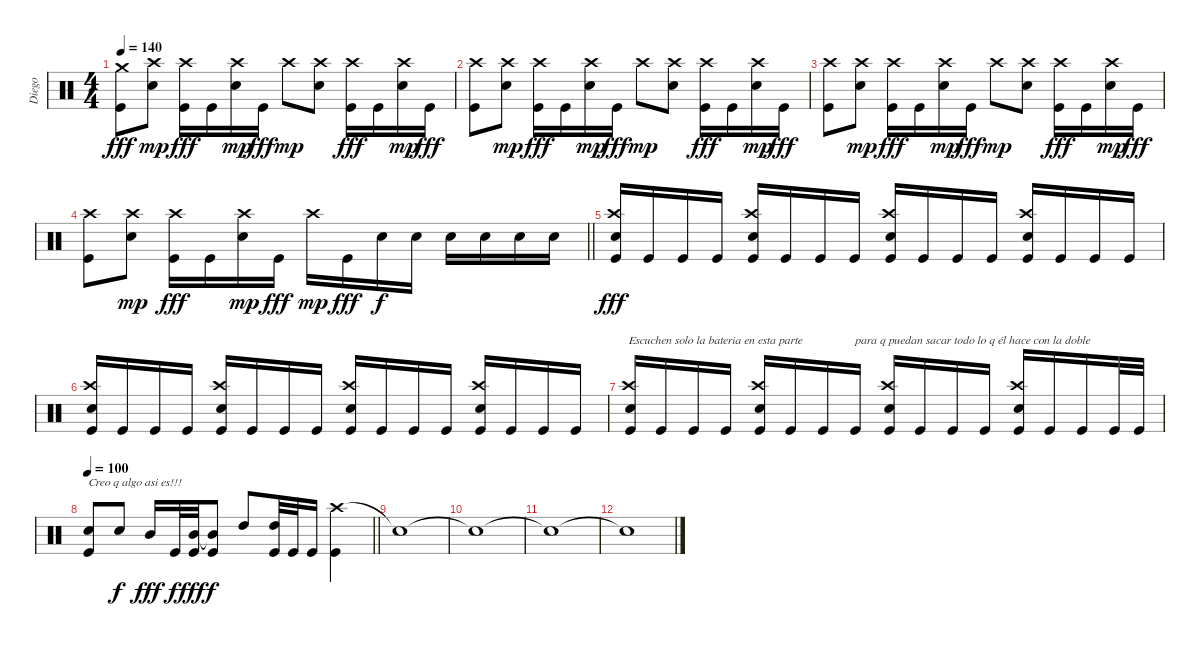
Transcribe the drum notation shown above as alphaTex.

\track ("Diego" "Diego") {instrument percussion}
\staff {score}
\articulation defaults
\ts (4 4)
\tempo 140
\clef neutral
\ks c
("Crash medium (hit)" "Kick (hit)").8{dy fff} ("Crash high (hit)" "Snare (hit) 2").8{dy mp} ("Crash high (hit)" "Kick (hit)").16{dy fff} "Kick (hit)".16 ("Crash high (hit)" "Snare (hit) 2").16{dy mp} "Kick (hit)".16{dy fff} "Crash high (hit)".8{dy mp} ("Crash high (hit)" "Snare (hit) 2").8 ("Crash high (hit)" "Kick (hit)").16{dy fff} "Kick (hit)".16 ("Crash high (hit)" "Snare (hit) 2").16{dy mp} "Kick (hit)".16{dy fff} |
("Crash high (hit)" "Kick (hit)").8 ("Crash high (hit)" "Snare (hit) 2").8{dy mp} ("Crash high (hit)" "Kick (hit)").16{dy fff} "Kick (hit)".16 ("Crash high (hit)" "Snare (hit) 2").16{dy mp} "Kick (hit)".16{dy fff} "Crash high (hit)".8{dy mp} ("Crash high (hit)" "Snare (hit) 2").8 ("Crash high (hit)" "Kick (hit)").16{dy fff} "Kick (hit)".16 ("Crash high (hit)" "Snare (hit) 2").16{dy mp} "Kick (hit)".16{dy fff} |
("Crash high (hit)" "Kick (hit)").8 ("Crash high (hit)" "Snare (hit) 2").8{dy mp} ("Crash high (hit)" "Kick (hit)").16{dy fff} "Kick (hit)".16 ("Crash high (hit)" "Snare (hit) 2").16{dy mp} "Kick (hit)".16{dy fff} "Crash high (hit)".8{dy mp} ("Crash high (hit)" "Snare (hit) 2").8 ("Crash high (hit)" "Kick (hit)").16{dy fff} "Kick (hit)".16 ("Crash high (hit)" "Snare (hit) 2").16{dy mp} "Kick (hit)".16{dy fff} |
\barLineRight lightlight
("Crash high (hit)" "Kick (hit)").8 ("Crash high (hit)" "Snare (hit) 2").8{dy mp} ("Crash high (hit)" "Kick (hit)").16{dy fff} "Kick (hit)".16 ("Crash high (hit)" "Snare (hit) 2").16{dy mp} "Kick (hit)".16{dy fff} "Crash high (hit)".16{dy mp} "Kick (hit)".16{dy fff} "Snare (hit) 2".16{dy f} "Snare (hit) 2".16 "Snare (hit) 2".16 "Snare (hit) 2".16 "Snare (hit) 2".16 "Snare (hit) 2".16 |
\section ("" "")
("Crash high (hit)" "Snare (hit) 2" "Kick (hit)").16{dy fff} "Kick (hit)".16 "Kick (hit)".16 "Kick (hit)".16 ("Crash high (hit)" "Snare (hit) 2" "Kick (hit)").16 "Kick (hit)".16 "Kick (hit)".16 "Kick (hit)".16 ("Crash high (hit)" "Snare (hit) 2" "Kick (hit)").16 "Kick (hit)".16 "Kick (hit)".16 "Kick (hit)".16 ("Crash high (hit)" "Snare (hit) 2" "Kick (hit)").16 "Kick (hit)".16 "Kick (hit)".16 "Kick (hit)".16 |
("Crash high (hit)" "Snare (hit) 2" "Kick (hit)").16 "Kick (hit)".16 "Kick (hit)".16 "Kick (hit)".16 ("Crash high (hit)" "Snare (hit) 2" "Kick (hit)").16 "Kick (hit)".16 "Kick (hit)".16 "Kick (hit)".16 ("Crash high (hit)" "Snare (hit) 2" "Kick (hit)").16 "Kick (hit)".16 "Kick (hit)".16 "Kick (hit)".16 ("Crash high (hit)" "Snare (hit) 2" "Kick (hit)").16 "Kick (hit)".16 "Kick (hit)".16 "Kick (hit)".16 |
("Crash high (hit)" "Snare (hit) 2" "Kick (hit)").16{txt "Escuchen solo la bateria en esta parte"} "Kick (hit)".16 "Kick (hit)".16 "Kick (hit)".16 ("Crash high (hit)" "Snare (hit) 2" "Kick (hit)").16 "Kick (hit)".16 "Kick (hit)".16 "Kick (hit)".16{txt "para q puedan sacar todo lo q él hace con la doble"} ("Crash high (hit)" "Snare (hit) 2" "Kick (hit)").16 "Kick (hit)".16 "Kick (hit)".16 "Kick (hit)".16 ("Crash high (hit)" "Snare (hit) 2" "Kick (hit)").16 "Kick (hit)".16 "Kick (hit)".16 "Kick (hit)".32 "Kick (hit)".32 |
\tempo 100
\barLineRight lightlight
("Snare (hit) 2" "Kick (hit)").8{txt "Creo q algo asi es!!!"} "Snare (hit) 2".8{dy f} "Mid Tom (hit)".16{dy fff} "Kick (hit)".32{dy f} ("Mid Tom (hit)" "Kick (hit)").32{dy fff} ("Mid Tom (hit)"{t} "Kick (hit)").8{dy f} "High Tom (hit)".8 ("High Tom (hit)" "Kick (hit)").32 "Kick (hit)".32 "Kick (hit)".16 ("Crash high (hit)" "Kick (hit)").4 |
"Snare (hit)"{t}.1 |
"Snare (hit)"{t}.1 |
"Snare (hit)"{t}.1 |
"Snare (hit)"{t}.1
